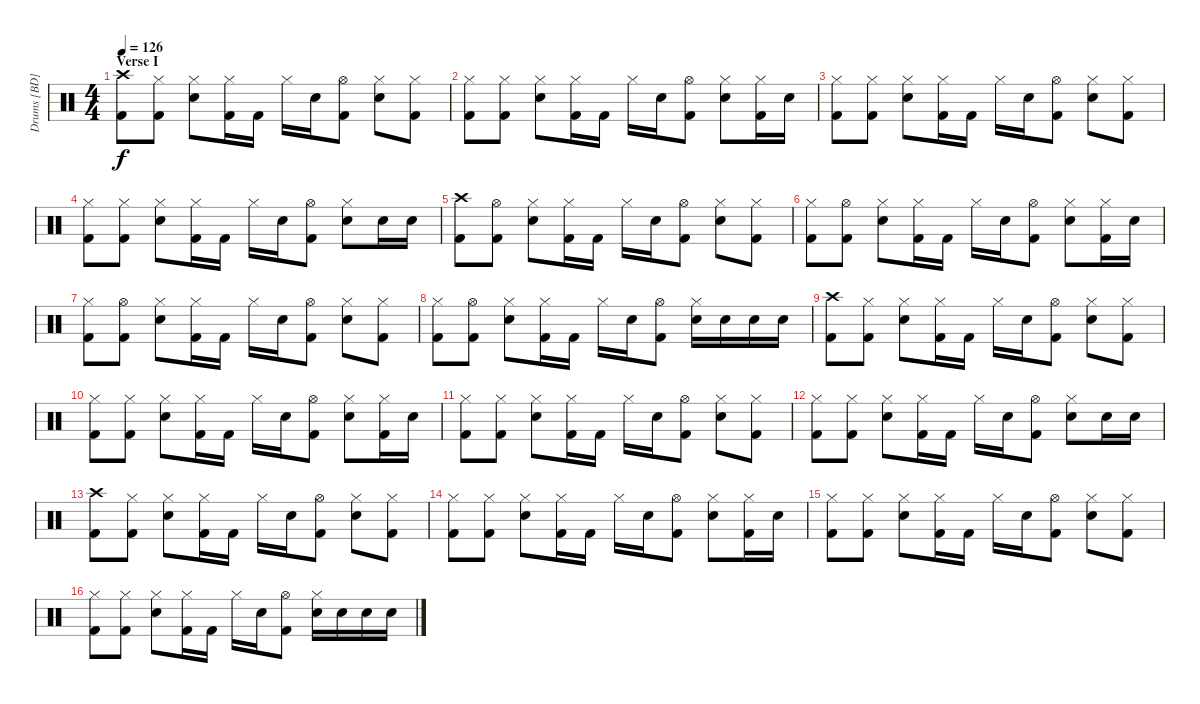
\track ("Drums [BD]" "Drums [BD]") {instrument percussion}
\staff {score}
\articulation defaults
\ts (4 4)
\section ("" "Verse I")
\tempo 126
\clef neutral
\ks c
("Kick (hit) 2" "Crash high (hit)").8{dy f} ("Kick (hit) 2" "Hi-Hat (closed)").8 ("Electric Snare (hit)" "Hi-Hat (closed)").8 ("Kick (hit) 2" "Hi-Hat (closed)").16 "Kick (hit) 2".16 "Hi-Hat (closed)".16 "Electric Snare (hit)".16 ("Kick (hit) 2" "Hi-Hat (open)").8 ("Electric Snare (hit)" "Hi-Hat (closed)").8 ("Kick (hit) 2" "Hi-Hat (closed)").8 |
("Kick (hit) 2" "Hi-Hat (closed)").8 ("Kick (hit) 2" "Hi-Hat (closed)").8 ("Electric Snare (hit)" "Hi-Hat (closed)").8 ("Kick (hit) 2" "Hi-Hat (closed)").16 "Kick (hit) 2".16 "Hi-Hat (closed)".16 "Electric Snare (hit)".16 ("Kick (hit) 2" "Hi-Hat (open)").8 ("Electric Snare (hit)" "Hi-Hat (closed)").8 ("Kick (hit) 2" "Hi-Hat (closed)").16 "Electric Snare (hit)".16 |
("Kick (hit) 2" "Hi-Hat (closed)").8 ("Kick (hit) 2" "Hi-Hat (closed)").8 ("Electric Snare (hit)" "Hi-Hat (closed)").8 ("Kick (hit) 2" "Hi-Hat (closed)").16 "Kick (hit) 2".16 "Hi-Hat (closed)".16 "Electric Snare (hit)".16 ("Kick (hit) 2" "Hi-Hat (open)").8 ("Electric Snare (hit)" "Hi-Hat (closed)").8 ("Kick (hit) 2" "Hi-Hat (closed)").8 |
("Kick (hit) 2" "Hi-Hat (closed)").8 ("Kick (hit) 2" "Hi-Hat (closed)").8 ("Electric Snare (hit)" "Hi-Hat (closed)").8 ("Kick (hit) 2" "Hi-Hat (closed)").16 "Kick (hit) 2".16 "Hi-Hat (closed)".16 "Electric Snare (hit)".16 ("Kick (hit) 2" "Hi-Hat (open)").8 ("Electric Snare (hit)" "Hi-Hat (closed)").8 "Electric Snare (hit)".16 "Electric Snare (hit)".16 |
("Kick (hit) 2" "Crash high (hit)").8 ("Kick (hit) 2" "Hi-Hat (open)").8 ("Electric Snare (hit)" "Hi-Hat (closed)").8 ("Kick (hit) 2" "Hi-Hat (closed)").16 "Kick (hit) 2".16 "Hi-Hat (closed)".16 "Electric Snare (hit)".16 ("Kick (hit) 2" "Hi-Hat (open)").8 ("Electric Snare (hit)" "Hi-Hat (closed)").8 ("Kick (hit) 2" "Hi-Hat (closed)").8 |
("Kick (hit) 2" "Hi-Hat (closed)").8 ("Kick (hit) 2" "Hi-Hat (open)").8 ("Electric Snare (hit)" "Hi-Hat (closed)").8 ("Kick (hit) 2" "Hi-Hat (closed)").16 "Kick (hit) 2".16 "Hi-Hat (closed)".16 "Electric Snare (hit)".16 ("Kick (hit) 2" "Hi-Hat (open)").8 ("Electric Snare (hit)" "Hi-Hat (closed)").8 ("Kick (hit) 2" "Hi-Hat (closed)").16 "Electric Snare (hit)".16 |
("Kick (hit) 2" "Hi-Hat (closed)").8 ("Kick (hit) 2" "Hi-Hat (open)").8 ("Electric Snare (hit)" "Hi-Hat (closed)").8 ("Kick (hit) 2" "Hi-Hat (closed)").16 "Kick (hit) 2".16 "Hi-Hat (closed)".16 "Electric Snare (hit)".16 ("Kick (hit) 2" "Hi-Hat (open)").8 ("Electric Snare (hit)" "Hi-Hat (closed)").8 ("Kick (hit) 2" "Hi-Hat (closed)").8 |
("Kick (hit) 2" "Hi-Hat (closed)").8 ("Kick (hit) 2" "Hi-Hat (open)").8 ("Electric Snare (hit)" "Hi-Hat (closed)").8 ("Kick (hit) 2" "Hi-Hat (closed)").16 "Kick (hit) 2".16 "Hi-Hat (closed)".16 "Electric Snare (hit)".16 ("Kick (hit) 2" "Hi-Hat (open)").8 ("Electric Snare (hit)" "Hi-Hat (closed)").16 "Electric Snare (hit)".16 "Electric Snare (hit)".16 "Electric Snare (hit)".16 |
("Kick (hit) 2" "Crash high (hit)").8 ("Kick (hit) 2" "Hi-Hat (closed)").8 ("Electric Snare (hit)" "Hi-Hat (closed)").8 ("Kick (hit) 2" "Hi-Hat (closed)").16 "Kick (hit) 2".16 "Hi-Hat (closed)".16 "Electric Snare (hit)".16 ("Kick (hit) 2" "Hi-Hat (open)").8 ("Electric Snare (hit)" "Hi-Hat (closed)").8 ("Kick (hit) 2" "Hi-Hat (closed)").8 |
("Kick (hit) 2" "Hi-Hat (closed)").8 ("Kick (hit) 2" "Hi-Hat (closed)").8 ("Electric Snare (hit)" "Hi-Hat (closed)").8 ("Kick (hit) 2" "Hi-Hat (closed)").16 "Kick (hit) 2".16 "Hi-Hat (closed)".16 "Electric Snare (hit)".16 ("Kick (hit) 2" "Hi-Hat (open)").8 ("Electric Snare (hit)" "Hi-Hat (closed)").8 ("Kick (hit) 2" "Hi-Hat (closed)").16 "Electric Snare (hit)".16 |
("Kick (hit) 2" "Hi-Hat (closed)").8 ("Kick (hit) 2" "Hi-Hat (closed)").8 ("Electric Snare (hit)" "Hi-Hat (closed)").8 ("Kick (hit) 2" "Hi-Hat (closed)").16 "Kick (hit) 2".16 "Hi-Hat (closed)".16 "Electric Snare (hit)".16 ("Kick (hit) 2" "Hi-Hat (open)").8 ("Electric Snare (hit)" "Hi-Hat (closed)").8 ("Kick (hit) 2" "Hi-Hat (closed)").8 |
("Kick (hit) 2" "Hi-Hat (closed)").8 ("Kick (hit) 2" "Hi-Hat (closed)").8 ("Electric Snare (hit)" "Hi-Hat (closed)").8 ("Kick (hit) 2" "Hi-Hat (closed)").16 "Kick (hit) 2".16 "Hi-Hat (closed)".16 "Electric Snare (hit)".16 ("Kick (hit) 2" "Hi-Hat (open)").8 ("Electric Snare (hit)" "Hi-Hat (closed)").8 "Electric Snare (hit)".16 "Electric Snare (hit)".16 |
("Kick (hit) 2" "Crash high (hit)").8 ("Kick (hit) 2" "Hi-Hat (closed)").8 ("Electric Snare (hit)" "Hi-Hat (closed)").8 ("Kick (hit) 2" "Hi-Hat (closed)").16 "Kick (hit) 2".16 "Hi-Hat (closed)".16 "Electric Snare (hit)".16 ("Kick (hit) 2" "Hi-Hat (open)").8 ("Electric Snare (hit)" "Hi-Hat (closed)").8 ("Kick (hit) 2" "Hi-Hat (closed)").8 |
("Kick (hit) 2" "Hi-Hat (closed)").8 ("Kick (hit) 2" "Hi-Hat (closed)").8 ("Electric Snare (hit)" "Hi-Hat (closed)").8 ("Kick (hit) 2" "Hi-Hat (closed)").16 "Kick (hit) 2".16 "Hi-Hat (closed)".16 "Electric Snare (hit)".16 ("Kick (hit) 2" "Hi-Hat (open)").8 ("Electric Snare (hit)" "Hi-Hat (closed)").8 ("Kick (hit) 2" "Hi-Hat (closed)").16 "Electric Snare (hit)".16 |
("Kick (hit) 2" "Hi-Hat (closed)").8 ("Kick (hit) 2" "Hi-Hat (closed)").8 ("Electric Snare (hit)" "Hi-Hat (closed)").8 ("Kick (hit) 2" "Hi-Hat (closed)").16 "Kick (hit) 2".16 "Hi-Hat (closed)".16 "Electric Snare (hit)".16 ("Kick (hit) 2" "Hi-Hat (open)").8 ("Electric Snare (hit)" "Hi-Hat (closed)").8 ("Kick (hit) 2" "Hi-Hat (closed)").8 |
("Kick (hit) 2" "Hi-Hat (closed)").8 ("Kick (hit) 2" "Hi-Hat (closed)").8 ("Electric Snare (hit)" "Hi-Hat (closed)").8 ("Kick (hit) 2" "Hi-Hat (closed)").16 "Kick (hit) 2".16 "Hi-Hat (closed)".16 "Electric Snare (hit)".16 ("Kick (hit) 2" "Hi-Hat (open)").8 ("Electric Snare (hit)" "Hi-Hat (closed)").16 "Electric Snare (hit)".16 "Electric Snare (hit)".16 "Electric Snare (hit)".16
